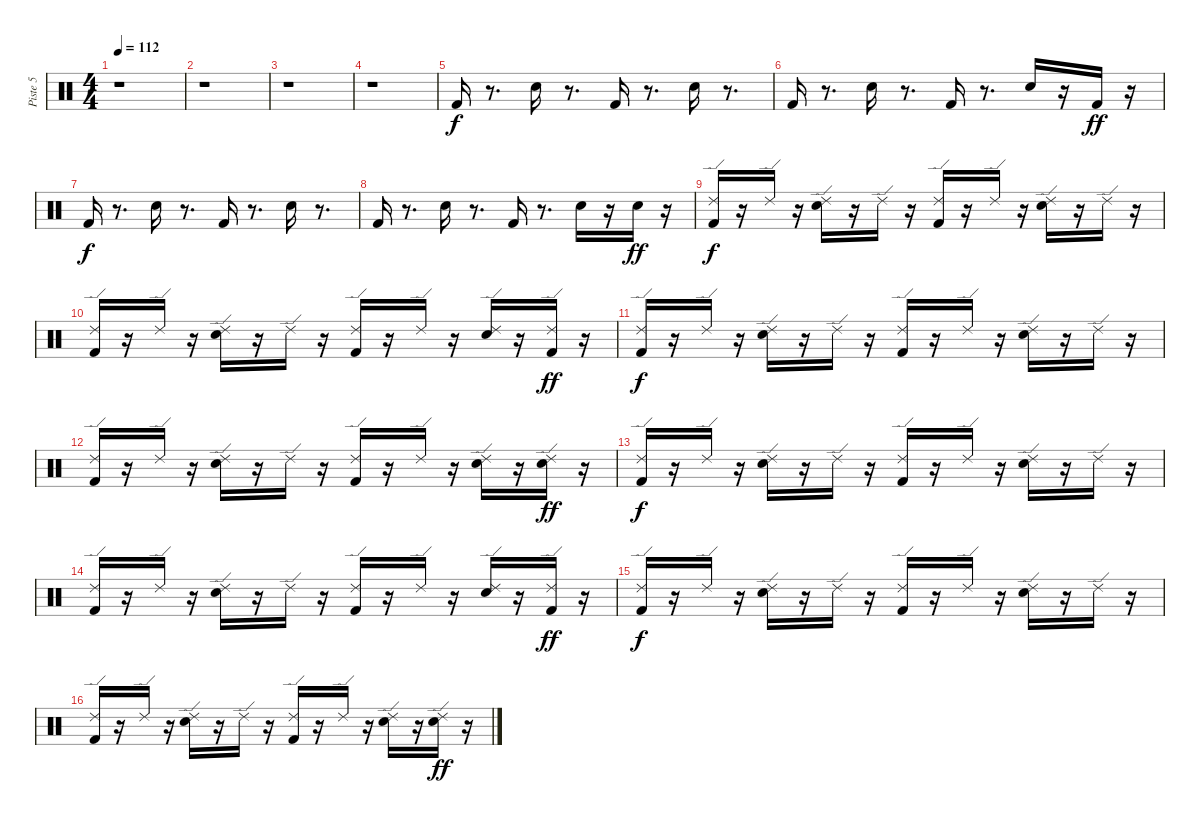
\track ("Piste 5" "Piste 5") {instrument percussion}
\staff {score}
\articulation defaults
\ts (4 4)
\tempo 112
\clef neutral
\ks c
r.1{dy ff} |
r.1 |
r.1 |
r.1 |
"Kick (hit) 2".16{dy f} r.8{d} "Electric Snare (hit)".16 r.8{d} "Kick (hit) 2".16 r.8{d} "Electric Snare (hit)".16 r.8{d} |
"Kick (hit) 2".16 r.8{d} "Electric Snare (hit)".16 r.8{d} "Kick (hit) 2".16 r.8{d} "Electric Snare (hit)".16 r.16 "Kick (hit) 2".16{dy ff} r.16 |
"Kick (hit) 2".16{dy f} r.8{d} "Electric Snare (hit)".16 r.8{d} "Kick (hit) 2".16 r.8{d} "Electric Snare (hit)".16 r.8{d} |
"Kick (hit) 2".16 r.8{d} "Electric Snare (hit)".16 r.8{d} "Kick (hit) 2".16 r.8{d} "Electric Snare (hit)".16 r.16 "Electric Snare (hit)".16{dy ff} r.16 |
("Ride (edge) 2" "Kick (hit) 2").16{dy f} r.16 "Ride (edge) 2".16 r.16 ("Ride (edge) 2" "Electric Snare (hit)").16 r.16 "Ride (edge) 2".16 r.16 ("Ride (edge) 2" "Kick (hit) 2").16 r.16 "Ride (edge) 2".16 r.16 ("Ride (edge) 2" "Electric Snare (hit)").16 r.16 "Ride (edge) 2".16 r.16 |
("Ride (edge) 2" "Kick (hit) 2").16 r.16 "Ride (edge) 2".16 r.16 ("Ride (edge) 2" "Electric Snare (hit)").16 r.16 "Ride (edge) 2".16 r.16 ("Ride (edge) 2" "Kick (hit) 2").16 r.16 "Ride (edge) 2".16 r.16 ("Ride (edge) 2" "Electric Snare (hit)").16 r.16 ("Ride (edge) 2" "Kick (hit) 2").16{dy ff} r.16 |
("Ride (edge) 2" "Kick (hit) 2").16{dy f} r.16 "Ride (edge) 2".16 r.16 ("Ride (edge) 2" "Electric Snare (hit)").16 r.16 "Ride (edge) 2".16 r.16 ("Ride (edge) 2" "Kick (hit) 2").16 r.16 "Ride (edge) 2".16 r.16 ("Ride (edge) 2" "Electric Snare (hit)").16 r.16 "Ride (edge) 2".16 r.16 |
("Ride (edge) 2" "Kick (hit) 2").16 r.16 "Ride (edge) 2".16 r.16 ("Ride (edge) 2" "Electric Snare (hit)").16 r.16 "Ride (edge) 2".16 r.16 ("Ride (edge) 2" "Kick (hit) 2").16 r.16 "Ride (edge) 2".16 r.16 ("Ride (edge) 2" "Electric Snare (hit)").16 r.16 ("Ride (edge) 2" "Electric Snare (hit)").16{dy ff} r.16 |
("Ride (edge) 2" "Kick (hit) 2").16{dy f} r.16 "Ride (edge) 2".16 r.16 ("Ride (edge) 2" "Electric Snare (hit)").16 r.16 "Ride (edge) 2".16 r.16 ("Ride (edge) 2" "Kick (hit) 2").16 r.16 "Ride (edge) 2".16 r.16 ("Ride (edge) 2" "Electric Snare (hit)").16 r.16 "Ride (edge) 2".16 r.16 |
("Ride (edge) 2" "Kick (hit) 2").16 r.16 "Ride (edge) 2".16 r.16 ("Ride (edge) 2" "Electric Snare (hit)").16 r.16 "Ride (edge) 2".16 r.16 ("Ride (edge) 2" "Kick (hit) 2").16 r.16 "Ride (edge) 2".16 r.16 ("Ride (edge) 2" "Electric Snare (hit)").16 r.16 ("Ride (edge) 2" "Kick (hit) 2").16{dy ff} r.16 |
("Ride (edge) 2" "Kick (hit) 2").16{dy f} r.16 "Ride (edge) 2".16 r.16 ("Ride (edge) 2" "Electric Snare (hit)").16 r.16 "Ride (edge) 2".16 r.16 ("Ride (edge) 2" "Kick (hit) 2").16 r.16 "Ride (edge) 2".16 r.16 ("Ride (edge) 2" "Electric Snare (hit)").16 r.16 "Ride (edge) 2".16 r.16 |
("Ride (edge) 2" "Kick (hit) 2").16 r.16 "Ride (edge) 2".16 r.16 ("Ride (edge) 2" "Electric Snare (hit)").16 r.16 "Ride (edge) 2".16 r.16 ("Ride (edge) 2" "Kick (hit) 2").16 r.16 "Ride (edge) 2".16 r.16 ("Ride (edge) 2" "Electric Snare (hit)").16 r.16 ("Ride (edge) 2" "Electric Snare (hit)").16{dy ff} r.16
